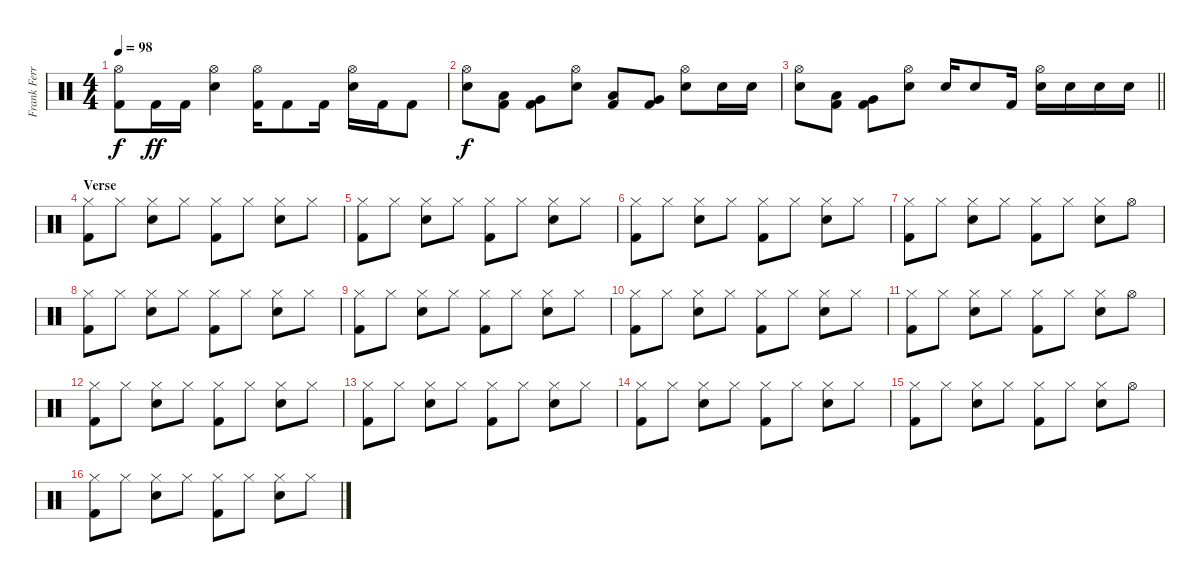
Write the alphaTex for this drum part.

\track ("Frank Ferrer" "Frank Ferr") {instrument percussion}
\staff {score}
\articulation defaults
\ts (4 4)
\tempo 98
\clef neutral
\ks c
("Hi-Hat (open)" "Kick (hit) 2").8{dy f} "Kick (hit) 2".16{dy ff} "Kick (hit) 2".16 ("Hi-Hat (open)" "Snare (hit) 2").4 ("Hi-Hat (open)" "Kick (hit) 2").16 "Kick (hit) 2".8 "Kick (hit) 2".16 ("Hi-Hat (open)" "Snare (hit) 2").16 "Kick (hit) 2".16 "Kick (hit) 2".8 |
("Hi-Hat (open)" "Snare (hit) 2").8{dy f} ("Low Tom (hit)" "Kick (hit) 2").8 ("Very Low Tom (hit)" "Kick (hit) 2").8 ("Hi-Hat (open)" "Snare (hit) 2").8 ("Low Tom (hit)" "Kick (hit) 2").8 ("Very Low Tom (hit)" "Kick (hit) 2").8 ("Hi-Hat (open)" "Snare (hit) 2").8 "Snare (hit) 2".16 "Snare (hit) 2".16 |
\barLineRight lightlight
("Hi-Hat (open)" "Snare (hit) 2").8 ("Low Tom (hit)" "Kick (hit) 2").8 ("Very Low Tom (hit)" "Kick (hit) 2").8 ("Hi-Hat (open)" "Snare (hit) 2").8 "Snare (hit) 2".16 "Snare (hit) 2".8 "Kick (hit) 2".16 ("Hi-Hat (open)" "Snare (hit) 2").16 "Snare (hit) 2".16 "Snare (hit) 2".16 "Snare (hit) 2".16 |
\section ("" "Verse")
("Hi-Hat (closed)" "Kick (hit) 2").8 "Hi-Hat (closed)".8 ("Hi-Hat (closed)" "Snare (hit) 2").8 "Hi-Hat (closed)".8 ("Hi-Hat (closed)" "Kick (hit) 2").8 "Hi-Hat (closed)".8 ("Hi-Hat (closed)" "Snare (hit) 2").8 "Hi-Hat (closed)".8 |
("Hi-Hat (closed)" "Kick (hit) 2").8 "Hi-Hat (closed)".8 ("Hi-Hat (closed)" "Snare (hit) 2").8 "Hi-Hat (closed)".8 ("Hi-Hat (closed)" "Kick (hit) 2").8 "Hi-Hat (closed)".8 ("Hi-Hat (closed)" "Snare (hit) 2").8 "Hi-Hat (closed)".8 |
("Hi-Hat (closed)" "Kick (hit) 2").8 "Hi-Hat (closed)".8 ("Hi-Hat (closed)" "Snare (hit) 2").8 "Hi-Hat (closed)".8 ("Hi-Hat (closed)" "Kick (hit) 2").8 "Hi-Hat (closed)".8 ("Hi-Hat (closed)" "Snare (hit) 2").8 "Hi-Hat (closed)".8 |
("Hi-Hat (closed)" "Kick (hit) 2").8 "Hi-Hat (closed)".8 ("Hi-Hat (closed)" "Snare (hit) 2").8 "Hi-Hat (closed)".8 ("Hi-Hat (closed)" "Kick (hit) 2").8 "Hi-Hat (closed)".8 ("Hi-Hat (closed)" "Snare (hit) 2").8 "Hi-Hat (open)".8 |
("Hi-Hat (closed)" "Kick (hit) 2").8 "Hi-Hat (closed)".8 ("Hi-Hat (closed)" "Snare (hit) 2").8 "Hi-Hat (closed)".8 ("Hi-Hat (closed)" "Kick (hit) 2").8 "Hi-Hat (closed)".8 ("Hi-Hat (closed)" "Snare (hit) 2").8 "Hi-Hat (closed)".8 |
("Hi-Hat (closed)" "Kick (hit) 2").8 "Hi-Hat (closed)".8 ("Hi-Hat (closed)" "Snare (hit) 2").8 "Hi-Hat (closed)".8 ("Hi-Hat (closed)" "Kick (hit) 2").8 "Hi-Hat (closed)".8 ("Hi-Hat (closed)" "Snare (hit) 2").8 "Hi-Hat (closed)".8 |
("Hi-Hat (closed)" "Kick (hit) 2").8 "Hi-Hat (closed)".8 ("Hi-Hat (closed)" "Snare (hit) 2").8 "Hi-Hat (closed)".8 ("Hi-Hat (closed)" "Kick (hit) 2").8 "Hi-Hat (closed)".8 ("Hi-Hat (closed)" "Snare (hit) 2").8 "Hi-Hat (closed)".8 |
("Hi-Hat (closed)" "Kick (hit) 2").8 "Hi-Hat (closed)".8 ("Hi-Hat (closed)" "Snare (hit) 2").8 "Hi-Hat (closed)".8 ("Hi-Hat (closed)" "Kick (hit) 2").8 "Hi-Hat (closed)".8 ("Hi-Hat (closed)" "Snare (hit) 2").8 "Hi-Hat (open)".8 |
("Hi-Hat (closed)" "Kick (hit) 2").8 "Hi-Hat (closed)".8 ("Hi-Hat (closed)" "Snare (hit) 2").8 "Hi-Hat (closed)".8 ("Hi-Hat (closed)" "Kick (hit) 2").8 "Hi-Hat (closed)".8 ("Hi-Hat (closed)" "Snare (hit) 2").8 "Hi-Hat (closed)".8 |
("Hi-Hat (closed)" "Kick (hit) 2").8 "Hi-Hat (closed)".8 ("Hi-Hat (closed)" "Snare (hit) 2").8 "Hi-Hat (closed)".8 ("Hi-Hat (closed)" "Kick (hit) 2").8 "Hi-Hat (closed)".8 ("Hi-Hat (closed)" "Snare (hit) 2").8 "Hi-Hat (closed)".8 |
("Hi-Hat (closed)" "Kick (hit) 2").8 "Hi-Hat (closed)".8 ("Hi-Hat (closed)" "Snare (hit) 2").8 "Hi-Hat (closed)".8 ("Hi-Hat (closed)" "Kick (hit) 2").8 "Hi-Hat (closed)".8 ("Hi-Hat (closed)" "Snare (hit) 2").8 "Hi-Hat (closed)".8 |
("Hi-Hat (closed)" "Kick (hit) 2").8 "Hi-Hat (closed)".8 ("Hi-Hat (closed)" "Snare (hit) 2").8 "Hi-Hat (closed)".8 ("Hi-Hat (closed)" "Kick (hit) 2").8 "Hi-Hat (closed)".8 ("Hi-Hat (closed)" "Snare (hit) 2").8 "Hi-Hat (open)".8 |
("Hi-Hat (closed)" "Kick (hit) 2").8 "Hi-Hat (closed)".8 ("Hi-Hat (closed)" "Snare (hit) 2").8 "Hi-Hat (closed)".8 ("Hi-Hat (closed)" "Kick (hit) 2").8 "Hi-Hat (closed)".8 ("Hi-Hat (closed)" "Snare (hit) 2").8 "Hi-Hat (closed)".8
